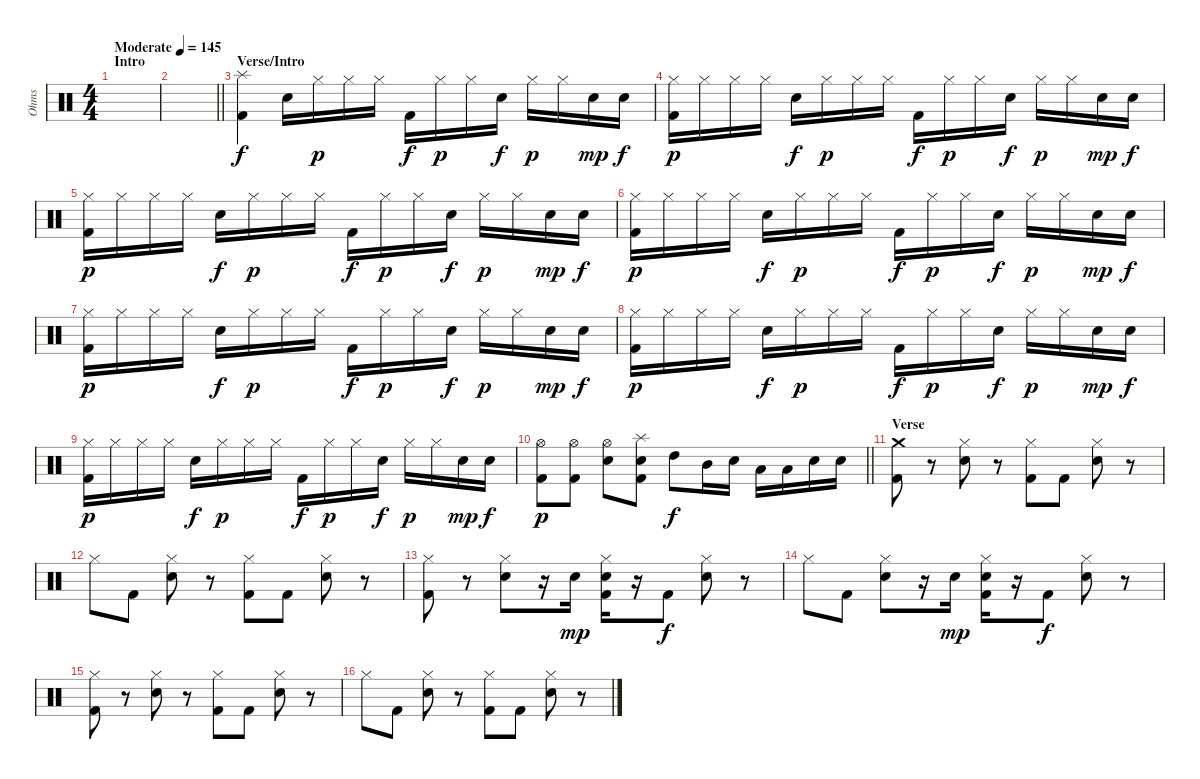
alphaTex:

\track ("Ohms" "Ohms") {instrument percussion}
\staff {score}
\articulation defaults
\ts (4 4)
\section ("" "Intro")
\tempo (145 "Moderate")
\clef neutral
\ks c
|
\barLineRight lightlight
|
\section ("" "Verse/Intro")
("Splash (hit)" "Kick (hit) 2").4 "Snare (hit) 2".16 "Hi-Hat (closed)".16{dy p} "Hi-Hat (closed)".16 "Hi-Hat (closed)".16 "Kick (hit) 2".16{dy f} "Hi-Hat (closed)".16{dy p} "Hi-Hat (closed)".16 "Snare (hit) 2".16{dy f} "Hi-Hat (closed)".16{dy p} "Hi-Hat (closed)".16 "Snare (hit) 2".16{dy mp} "Snare (hit) 2".16{dy f} |
("Hi-Hat (closed)" "Kick (hit) 2").16{dy p} "Hi-Hat (closed)".16 "Hi-Hat (closed)".16 "Hi-Hat (closed)".16 "Snare (hit) 2".16{dy f} "Hi-Hat (closed)".16{dy p} "Hi-Hat (closed)".16 "Hi-Hat (closed)".16 "Kick (hit) 2".16{dy f} "Hi-Hat (closed)".16{dy p} "Hi-Hat (closed)".16 "Snare (hit) 2".16{dy f} "Hi-Hat (closed)".16{dy p} "Hi-Hat (closed)".16 "Snare (hit) 2".16{dy mp} "Snare (hit) 2".16{dy f} |
("Hi-Hat (closed)" "Kick (hit) 2").16{dy p} "Hi-Hat (closed)".16 "Hi-Hat (closed)".16 "Hi-Hat (closed)".16 "Snare (hit) 2".16{dy f} "Hi-Hat (closed)".16{dy p} "Hi-Hat (closed)".16 "Hi-Hat (closed)".16 "Kick (hit) 2".16{dy f} "Hi-Hat (closed)".16{dy p} "Hi-Hat (closed)".16 "Snare (hit) 2".16{dy f} "Hi-Hat (closed)".16{dy p} "Hi-Hat (closed)".16 "Snare (hit) 2".16{dy mp} "Snare (hit) 2".16{dy f} |
("Hi-Hat (closed)" "Kick (hit) 2").16{dy p} "Hi-Hat (closed)".16 "Hi-Hat (closed)".16 "Hi-Hat (closed)".16 "Snare (hit) 2".16{dy f} "Hi-Hat (closed)".16{dy p} "Hi-Hat (closed)".16 "Hi-Hat (closed)".16 "Kick (hit) 2".16{dy f} "Hi-Hat (closed)".16{dy p} "Hi-Hat (closed)".16 "Snare (hit) 2".16{dy f} "Hi-Hat (closed)".16{dy p} "Hi-Hat (closed)".16 "Snare (hit) 2".16{dy mp} "Snare (hit) 2".16{dy f} |
("Hi-Hat (closed)" "Kick (hit) 2").16{dy p} "Hi-Hat (closed)".16 "Hi-Hat (closed)".16 "Hi-Hat (closed)".16 "Snare (hit) 2".16{dy f} "Hi-Hat (closed)".16{dy p} "Hi-Hat (closed)".16 "Hi-Hat (closed)".16 "Kick (hit) 2".16{dy f} "Hi-Hat (closed)".16{dy p} "Hi-Hat (closed)".16 "Snare (hit) 2".16{dy f} "Hi-Hat (closed)".16{dy p} "Hi-Hat (closed)".16 "Snare (hit) 2".16{dy mp} "Snare (hit) 2".16{dy f} |
("Hi-Hat (closed)" "Kick (hit) 2").16{dy p} "Hi-Hat (closed)".16 "Hi-Hat (closed)".16 "Hi-Hat (closed)".16 "Snare (hit) 2".16{dy f} "Hi-Hat (closed)".16{dy p} "Hi-Hat (closed)".16 "Hi-Hat (closed)".16 "Kick (hit) 2".16{dy f} "Hi-Hat (closed)".16{dy p} "Hi-Hat (closed)".16 "Snare (hit) 2".16{dy f} "Hi-Hat (closed)".16{dy p} "Hi-Hat (closed)".16 "Snare (hit) 2".16{dy mp} "Snare (hit) 2".16{dy f} |
("Hi-Hat (closed)" "Kick (hit) 2").16{dy p} "Hi-Hat (closed)".16 "Hi-Hat (closed)".16 "Hi-Hat (closed)".16 "Snare (hit) 2".16{dy f} "Hi-Hat (closed)".16{dy p} "Hi-Hat (closed)".16 "Hi-Hat (closed)".16 "Kick (hit) 2".16{dy f} "Hi-Hat (closed)".16{dy p} "Hi-Hat (closed)".16 "Snare (hit) 2".16{dy f} "Hi-Hat (closed)".16{dy p} "Hi-Hat (closed)".16 "Snare (hit) 2".16{dy mp} "Snare (hit) 2".16{dy f} |
\barLineRight lightlight
("Hi-Hat (open)" "Kick (hit) 2").8{dy p} ("Hi-Hat (open)" "Kick (hit) 2").8 ("Hi-Hat (open)" "Snare (hit) 2").8 ("Splash (hit)" "Snare (hit) 2" "Kick (hit) 2").8 "High Tom (hit)".8{dy f} "Mid Tom (hit)".16 "Snare (hit) 2".16 "Low Tom (hit)".16 "Low Tom (hit)".16 "Snare (hit) 2".16 "Snare (hit) 2".16 |
\section ("" "Verse")
("Crash medium (hit)" "Kick (hit) 2").8 r.8 ("Hi-Hat (closed)" "Snare (hit) 2").8 r.8 ("Hi-Hat (closed)" "Kick (hit) 2").8 "Kick (hit) 2".8 ("Hi-Hat (closed)" "Snare (hit) 2").8 r.8 |
"Hi-Hat (closed)".8 "Kick (hit) 2".8 ("Hi-Hat (closed)" "Snare (hit) 2").8 r.8 ("Hi-Hat (closed)" "Kick (hit) 2").8 "Kick (hit) 2".8 ("Hi-Hat (closed)" "Snare (hit) 2").8 r.8 |
("Hi-Hat (closed)" "Kick (hit) 2").8 r.8 ("Hi-Hat (closed)" "Snare (hit) 2").8 r.16 "Snare (hit) 2".16{dy mp} ("Hi-Hat (closed)" "Snare (hit) 2" "Kick (hit) 2").16 r.16 "Kick (hit) 2".8{dy f} ("Hi-Hat (closed)" "Snare (hit) 2").8 r.8 |
"Hi-Hat (closed)".8 "Kick (hit) 2".8 ("Hi-Hat (closed)" "Snare (hit) 2").8 r.16 "Snare (hit) 2".16{dy mp} ("Hi-Hat (closed)" "Snare (hit) 2" "Kick (hit) 2").16 r.16 "Kick (hit) 2".8{dy f} ("Hi-Hat (closed)" "Snare (hit) 2").8 r.8 |
("Hi-Hat (closed)" "Kick (hit) 2").8 r.8 ("Hi-Hat (closed)" "Snare (hit) 2").8 r.8 ("Hi-Hat (closed)" "Kick (hit) 2").8 "Kick (hit) 2".8 ("Hi-Hat (closed)" "Snare (hit) 2").8 r.8 |
"Hi-Hat (closed)".8 "Kick (hit) 2".8 ("Hi-Hat (closed)" "Snare (hit) 2").8 r.8 ("Hi-Hat (closed)" "Kick (hit) 2").8 "Kick (hit) 2".8 ("Hi-Hat (closed)" "Snare (hit) 2").8 r.8
